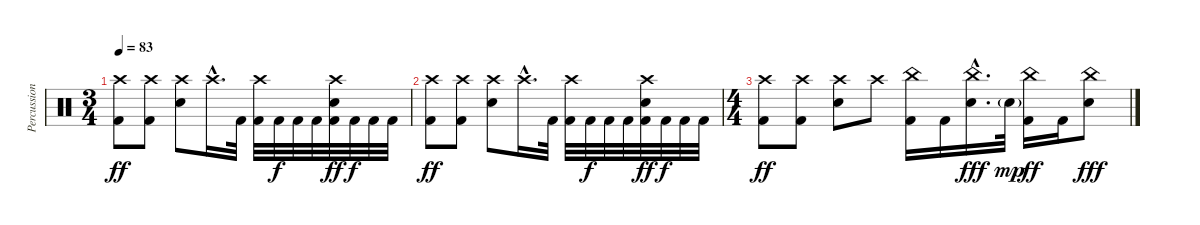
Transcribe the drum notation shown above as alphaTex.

\track ("Percussions" "Percussion") {instrument percussion}
\staff {score}
\articulation defaults
\ts (3 4)
\tempo 83
\clef neutral
\ks c
("Crash high (hit)" "Kick (hit) 2").8{dy ff} ("Crash high (hit)" "Kick (hit) 2").8 ("Crash high (hit)" "Electric Snare (hit)").8 "Crash high (hit)"{hac}.16{d} "Kick (hit) 2".32 ("Crash high (hit)" "Kick (hit) 2").32 "Kick (hit) 2".32{dy f} "Kick (hit) 2".32 "Kick (hit) 2".32 ("Crash high (hit)" "Electric Snare (hit)" "Kick (hit) 2").32{dy ff} "Kick (hit) 2".32{dy f} "Kick (hit) 2".32 "Kick (hit) 2".32 |
("Crash high (hit)" "Kick (hit) 2").8{dy ff} ("Crash high (hit)" "Kick (hit) 2").8 ("Crash high (hit)" "Electric Snare (hit)").8 "Crash high (hit)"{hac}.16{d} "Kick (hit) 2".32 ("Crash high (hit)" "Kick (hit) 2").32 "Kick (hit) 2".32{dy f} "Kick (hit) 2".32 "Kick (hit) 2".32 ("Crash high (hit)" "Electric Snare (hit)" "Kick (hit) 2").32{dy ff} "Kick (hit) 2".32{dy f} "Kick (hit) 2".32 "Kick (hit) 2".32 |
\ts (4 4)
("Crash high (hit)" "Kick (hit) 2").8{dy ff} ("Crash high (hit)" "Kick (hit) 2").8 ("Crash high (hit)" "Electric Snare (hit)").8 "Crash high (hit)".8 ("China (hit)" "Kick (hit) 2").16 "Kick (hit) 2".16 ("China (hit)"{hac} "Electric Snare (hit)"{hac}).16{d dy fff} "Electric Snare (hit)"{g}.32{dy mp} ("China (hit)" "Kick (hit) 2").16{dy ff} "Kick (hit) 2".16 ("China (hit)" "Electric Snare (hit)").8{dy fff}
